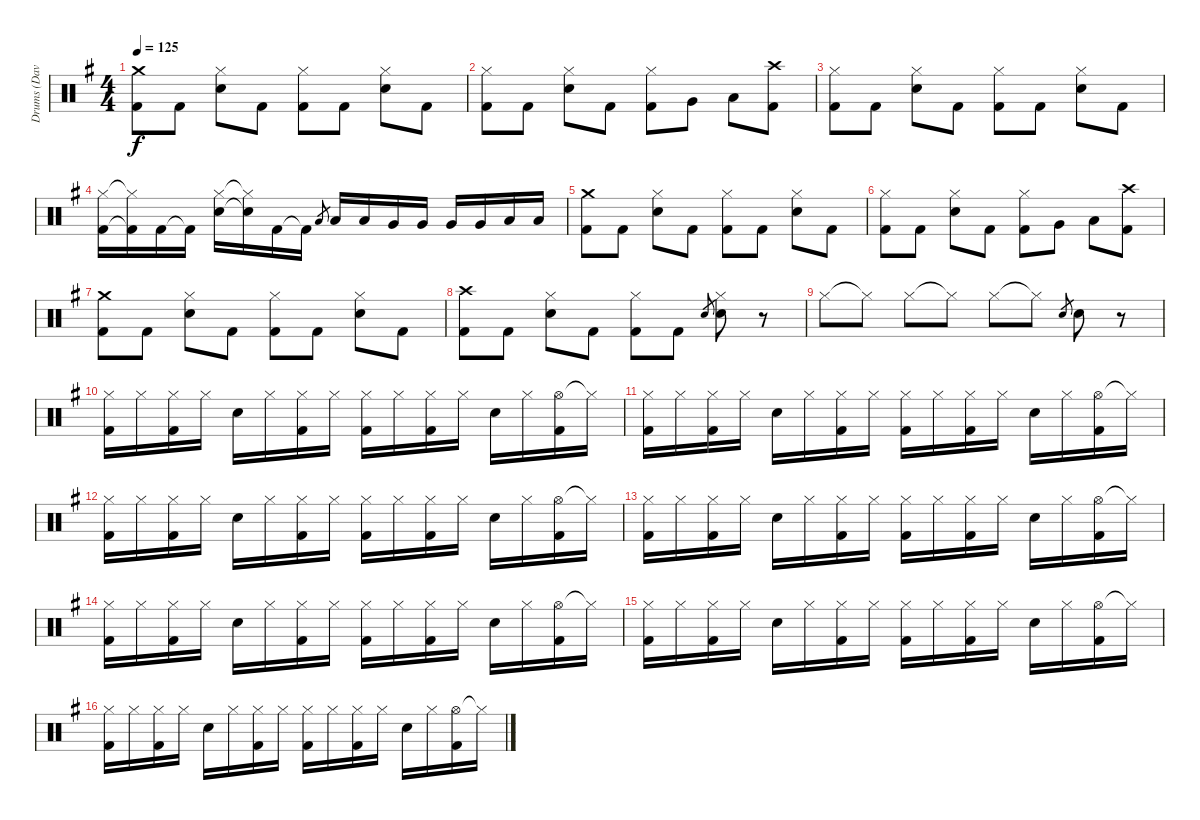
\track ("Drums (Dave Holland)" "Drums (Dav") {instrument percussion}
\staff {score}
\articulation defaults
\ts (4 4)
\tempo 125
\clef neutral
\ks g
("Crash medium (hit)" "Kick (hit) 2").8{dy f} "Kick (hit) 2".8 ("Hi-Hat (closed)" "Snare (hit) 2").8 "Kick (hit) 2".8 ("Hi-Hat (closed)" "Kick (hit) 2").8 "Kick (hit) 2".8 ("Hi-Hat (closed)" "Snare (hit) 2").8 "Kick (hit) 2".8 |
("Hi-Hat (closed)" "Kick (hit) 2").8 "Kick (hit) 2".8 ("Hi-Hat (closed)" "Snare (hit) 2").8 "Kick (hit) 2".8 ("Hi-Hat (closed)" "Kick (hit) 2").8 "Very Low Tom (hit)".8 "Low Floor Tom (hit)".8 ("Crash high (hit)" "Kick (hit) 2").8 |
("Hi-Hat (closed)" "Kick (hit) 2").8 "Kick (hit) 2".8 ("Hi-Hat (closed)" "Snare (hit) 2").8 "Kick (hit) 2".8 ("Hi-Hat (closed)" "Kick (hit) 2").8 "Kick (hit) 2".8 ("Hi-Hat (closed)" "Snare (hit) 2").8 "Kick (hit) 2".8 |
("Hi-Hat (closed)" "Kick (hit) 2").16 ("Hi-Hat (closed)"{t} "Kick (hit) 2"{t}).16 "Kick (hit) 2".16 "Kick (hit) 2"{t}.16 ("Hi-Hat (closed)" "Snare (hit) 2").16 ("Hi-Hat (closed)"{t} "Snare (hit) 2"{t}).16 "Kick (hit) 2".16 "Kick (hit) 2"{t}.16 "Low Tom (hit)".8{gr} "Low Tom (hit)".16 "Low Tom (hit)".16 "Very Low Tom (hit)".16 "Very Low Tom (hit)".16 "Very Low Tom (hit)".16 "Very Low Tom (hit)".16 "Low Floor Tom (hit)".16 "Low Floor Tom (hit)".16 |
("Crash medium (hit)" "Kick (hit) 2").8 "Kick (hit) 2".8 ("Hi-Hat (closed)" "Snare (hit) 2").8 "Kick (hit) 2".8 ("Hi-Hat (closed)" "Kick (hit) 2").8 "Kick (hit) 2".8 ("Hi-Hat (closed)" "Snare (hit) 2").8 "Kick (hit) 2".8 |
("Hi-Hat (closed)" "Kick (hit) 2").8 "Kick (hit) 2".8 ("Hi-Hat (closed)" "Snare (hit) 2").8 "Kick (hit) 2".8 ("Hi-Hat (closed)" "Kick (hit) 2").8 "Very Low Tom (hit)".8 "Low Floor Tom (hit)".8 ("Crash high (hit)" "Kick (hit) 2").8 |
("Crash medium (hit)" "Kick (hit) 2").8 "Kick (hit) 2".8 ("Hi-Hat (closed)" "Snare (hit) 2").8 "Kick (hit) 2".8 ("Hi-Hat (closed)" "Kick (hit) 2").8 "Kick (hit) 2".8 ("Hi-Hat (closed)" "Snare (hit) 2").8 "Kick (hit) 2".8 |
("Crash high (hit)" "Kick (hit) 2").8 "Kick (hit) 2".8 ("Hi-Hat (closed)" "Snare (hit) 2").8 "Kick (hit) 2".8 ("Hi-Hat (closed)" "Kick (hit) 2").8 "Kick (hit) 2".8 "Snare (hit) 2".8{gr} ("Hi-Hat (closed)" "Snare (hit) 2").8 r.8 |
"Hi-Hat (closed)".8 "Hi-Hat (closed)"{t}.8 "Hi-Hat (closed)".8 "Hi-Hat (closed)"{t}.8 "Hi-Hat (closed)".8 "Hi-Hat (closed)"{t}.8 "Snare (hit) 2".8{gr} "Snare (hit) 2".8 r.8 |
("Hi-Hat (closed)" "Kick (hit) 2").16 "Hi-Hat (closed)".16 ("Hi-Hat (closed)" "Kick (hit) 2").16 "Hi-Hat (closed)".16 "Snare (hit) 2".16 "Hi-Hat (closed)".16 ("Hi-Hat (closed)" "Kick (hit) 2").16 "Hi-Hat (closed)".16 ("Hi-Hat (closed)" "Kick (hit) 2").16 "Hi-Hat (closed)".16 ("Hi-Hat (closed)" "Kick (hit) 2").16 "Hi-Hat (closed)".16 "Snare (hit) 2".16 "Hi-Hat (closed)".16 ("Hi-Hat (open)" "Kick (hit) 2").16 "Hi-Hat (closed)"{t}.16 |
("Hi-Hat (closed)" "Kick (hit) 2").16 "Hi-Hat (closed)".16 ("Hi-Hat (closed)" "Kick (hit) 2").16 "Hi-Hat (closed)".16 "Snare (hit) 2".16 "Hi-Hat (closed)".16 ("Hi-Hat (closed)" "Kick (hit) 2").16 "Hi-Hat (closed)".16 ("Hi-Hat (closed)" "Kick (hit) 2").16 "Hi-Hat (closed)".16 ("Hi-Hat (closed)" "Kick (hit) 2").16 "Hi-Hat (closed)".16 "Snare (hit) 2".16 "Hi-Hat (closed)".16 ("Hi-Hat (open)" "Kick (hit) 2").16 "Hi-Hat (closed)"{t}.16 |
("Hi-Hat (closed)" "Kick (hit) 2").16 "Hi-Hat (closed)".16 ("Hi-Hat (closed)" "Kick (hit) 2").16 "Hi-Hat (closed)".16 "Snare (hit) 2".16 "Hi-Hat (closed)".16 ("Hi-Hat (closed)" "Kick (hit) 2").16 "Hi-Hat (closed)".16 ("Hi-Hat (closed)" "Kick (hit) 2").16 "Hi-Hat (closed)".16 ("Hi-Hat (closed)" "Kick (hit) 2").16 "Hi-Hat (closed)".16 "Snare (hit) 2".16 "Hi-Hat (closed)".16 ("Hi-Hat (open)" "Kick (hit) 2").16 "Hi-Hat (closed)"{t}.16 |
("Hi-Hat (closed)" "Kick (hit) 2").16 "Hi-Hat (closed)".16 ("Hi-Hat (closed)" "Kick (hit) 2").16 "Hi-Hat (closed)".16 "Snare (hit) 2".16 "Hi-Hat (closed)".16 ("Hi-Hat (closed)" "Kick (hit) 2").16 "Hi-Hat (closed)".16 ("Hi-Hat (closed)" "Kick (hit) 2").16 "Hi-Hat (closed)".16 ("Hi-Hat (closed)" "Kick (hit) 2").16 "Hi-Hat (closed)".16 "Snare (hit) 2".16 "Hi-Hat (closed)".16 ("Hi-Hat (open)" "Kick (hit) 2").16 "Hi-Hat (closed)"{t}.16 |
("Hi-Hat (closed)" "Kick (hit) 2").16 "Hi-Hat (closed)".16 ("Hi-Hat (closed)" "Kick (hit) 2").16 "Hi-Hat (closed)".16 "Snare (hit) 2".16 "Hi-Hat (closed)".16 ("Hi-Hat (closed)" "Kick (hit) 2").16 "Hi-Hat (closed)".16 ("Hi-Hat (closed)" "Kick (hit) 2").16 "Hi-Hat (closed)".16 ("Hi-Hat (closed)" "Kick (hit) 2").16 "Hi-Hat (closed)".16 "Snare (hit) 2".16 "Hi-Hat (closed)".16 ("Hi-Hat (open)" "Kick (hit) 2").16 "Hi-Hat (closed)"{t}.16 |
("Hi-Hat (closed)" "Kick (hit) 2").16 "Hi-Hat (closed)".16 ("Hi-Hat (closed)" "Kick (hit) 2").16 "Hi-Hat (closed)".16 "Snare (hit) 2".16 "Hi-Hat (closed)".16 ("Hi-Hat (closed)" "Kick (hit) 2").16 "Hi-Hat (closed)".16 ("Hi-Hat (closed)" "Kick (hit) 2").16 "Hi-Hat (closed)".16 ("Hi-Hat (closed)" "Kick (hit) 2").16 "Hi-Hat (closed)".16 "Snare (hit) 2".16 "Hi-Hat (closed)".16 ("Hi-Hat (open)" "Kick (hit) 2").16 "Hi-Hat (closed)"{t}.16 |
("Hi-Hat (closed)" "Kick (hit) 2").16 "Hi-Hat (closed)".16 ("Hi-Hat (closed)" "Kick (hit) 2").16 "Hi-Hat (closed)".16 "Snare (hit) 2".16 "Hi-Hat (closed)".16 ("Hi-Hat (closed)" "Kick (hit) 2").16 "Hi-Hat (closed)".16 ("Hi-Hat (closed)" "Kick (hit) 2").16 "Hi-Hat (closed)".16 ("Hi-Hat (closed)" "Kick (hit) 2").16 "Hi-Hat (closed)".16 "Snare (hit) 2".16 "Hi-Hat (closed)".16 ("Hi-Hat (open)" "Kick (hit) 2").16 "Hi-Hat (closed)"{t}.16
